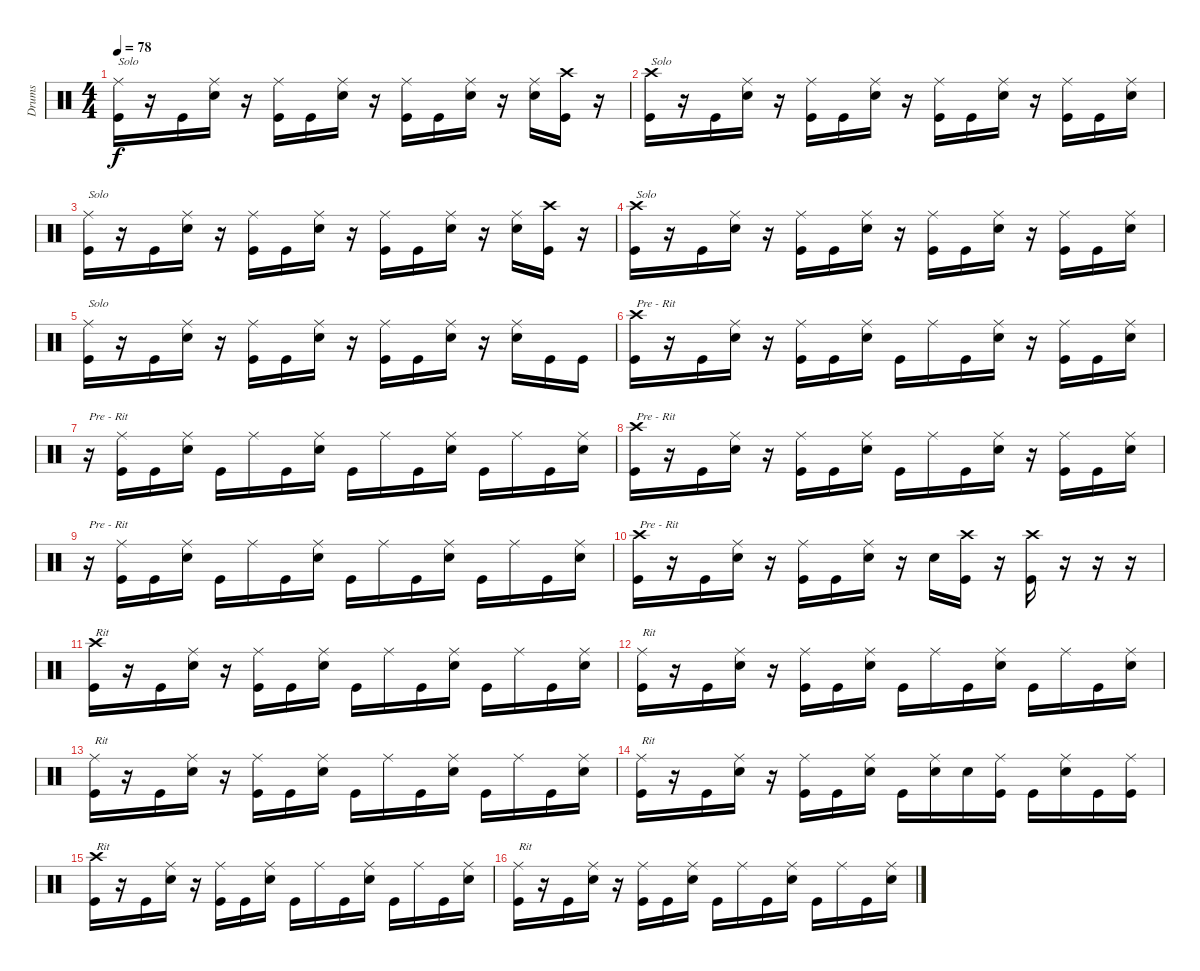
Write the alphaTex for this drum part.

\track ("Drums" "Drums") {instrument percussion}
\staff {score}
\articulation defaults
\ts (4 4)
\tempo 78
\clef neutral
\ks c
("Ride (middle)" "Kick (hit)").16{txt "Solo" dy f} r.16 "Kick (hit)".16 ("Ride (middle)" "Snare (hit) 2").16 r.16 ("Ride (middle)" "Kick (hit)").16 "Kick (hit)".16 ("Ride (middle)" "Snare (hit) 2").16 r.16 ("Ride (middle)" "Kick (hit)").16 "Kick (hit)".16 ("Ride (middle)" "Snare (hit) 2").16 r.16 ("Ride (middle)" "Snare (hit) 2").16 ("Crash high (hit)" "Kick (hit)").16 r.16 |
("Crash high (hit)" "Kick (hit)").16{txt "Solo"} r.16 "Kick (hit)".16 ("Ride (middle)" "Snare (hit) 2").16 r.16 ("Ride (middle)" "Kick (hit)").16 "Kick (hit)".16 ("Ride (middle)" "Snare (hit) 2").16 r.16 ("Ride (middle)" "Kick (hit)").16 "Kick (hit)".16 ("Ride (middle)" "Snare (hit) 2").16 r.16 ("Ride (middle)" "Kick (hit)").16 "Kick (hit)".16 ("Ride (middle)" "Snare (hit) 2").16 |
("Ride (middle)" "Kick (hit)").16{txt "Solo"} r.16 "Kick (hit)".16 ("Ride (middle)" "Snare (hit) 2").16 r.16 ("Ride (middle)" "Kick (hit)").16 "Kick (hit)".16 ("Ride (middle)" "Snare (hit) 2").16 r.16 ("Ride (middle)" "Kick (hit)").16 "Kick (hit)".16 ("Ride (middle)" "Snare (hit) 2").16 r.16 ("Ride (middle)" "Snare (hit) 2").16 ("Crash high (hit)" "Kick (hit)").16 r.16 |
("Crash high (hit)" "Kick (hit)").16{txt "Solo"} r.16 "Kick (hit)".16 ("Ride (middle)" "Snare (hit) 2").16 r.16 ("Ride (middle)" "Kick (hit)").16 "Kick (hit)".16 ("Ride (middle)" "Snare (hit) 2").16 r.16 ("Ride (middle)" "Kick (hit)").16 "Kick (hit)".16 ("Ride (middle)" "Snare (hit) 2").16 r.16 ("Ride (middle)" "Kick (hit)").16 "Kick (hit)".16 ("Ride (middle)" "Snare (hit) 2").16 |
("Ride (middle)" "Kick (hit)").16{txt "Solo"} r.16 "Kick (hit)".16 ("Ride (middle)" "Snare (hit) 2").16 r.16 ("Ride (middle)" "Kick (hit)").16 "Kick (hit)".16 ("Ride (middle)" "Snare (hit) 2").16 r.16 ("Ride (middle)" "Kick (hit)").16 "Kick (hit)".16 ("Ride (middle)" "Snare (hit) 2").16 r.16 ("Ride (middle)" "Snare (hit) 2").16 "Kick (hit)".16 "Kick (hit)".16 |
("Crash high (hit)" "Kick (hit)").16{txt "Pre - Rit"} r.16 "Kick (hit)".16 ("Ride (middle)" "Snare (hit) 2").16 r.16 ("Ride (middle)" "Kick (hit)").16 "Kick (hit)".16 ("Ride (middle)" "Snare (hit) 2").16 "Kick (hit)".16 "Ride (middle)".16 "Kick (hit)".16 ("Ride (middle)" "Snare (hit) 2").16 r.16 ("Ride (middle)" "Kick (hit)").16 "Kick (hit)".16 ("Ride (middle)" "Snare (hit) 2").16 |
r.16{txt "Pre - Rit"} ("Ride (middle)" "Kick (hit)").16 "Kick (hit)".16 ("Ride (middle)" "Snare (hit) 2").16 "Kick (hit)".16 "Ride (middle)".16 "Kick (hit)".16 ("Ride (middle)" "Snare (hit) 2").16 "Kick (hit)".16 "Ride (middle)".16 "Kick (hit)".16 ("Ride (middle)" "Snare (hit) 2").16 "Kick (hit)".16 "Ride (middle)".16 "Kick (hit)".16 ("Ride (middle)" "Snare (hit) 2").16 |
("Crash high (hit)" "Kick (hit)").16{txt "Pre - Rit"} r.16 "Kick (hit)".16 ("Ride (middle)" "Snare (hit) 2").16 r.16 ("Ride (middle)" "Kick (hit)").16 "Kick (hit)".16 ("Ride (middle)" "Snare (hit) 2").16 "Kick (hit)".16 "Ride (middle)".16 "Kick (hit)".16 ("Ride (middle)" "Snare (hit) 2").16 r.16 ("Ride (middle)" "Kick (hit)").16 "Kick (hit)".16 ("Ride (middle)" "Snare (hit) 2").16 |
r.16{txt "Pre - Rit"} ("Ride (middle)" "Kick (hit)").16 "Kick (hit)".16 ("Ride (middle)" "Snare (hit) 2").16 "Kick (hit)".16 "Ride (middle)".16 "Kick (hit)".16 ("Ride (middle)" "Snare (hit) 2").16 "Kick (hit)".16 "Ride (middle)".16 "Kick (hit)".16 ("Ride (middle)" "Snare (hit) 2").16 "Kick (hit)".16 "Ride (middle)".16 "Kick (hit)".16 ("Ride (middle)" "Snare (hit) 2").16 |
("Crash high (hit)" "Kick (hit)").16{txt "Pre - Rit"} r.16 "Kick (hit)".16 ("Ride (middle)" "Snare (hit) 2").16 r.16 ("Ride (middle)" "Kick (hit)").16 "Kick (hit)".16 ("Ride (middle)" "Snare (hit) 2").16 r.16 "Snare (hit) 2".16 ("Crash high (hit)" "Kick (hit)").16 r.16 ("Crash high (hit)" "Kick (hit)").16 r.16 r.16 r.16 |
("Crash high (hit)" "Kick (hit)").16{txt "Rit"} r.16 "Kick (hit)".16 ("Ride (middle)" "Snare (hit) 2").16 r.16 ("Ride (middle)" "Kick (hit)").16 "Kick (hit)".16 ("Ride (middle)" "Snare (hit) 2").16 "Kick (hit)".16 "Ride (middle)".16 "Kick (hit)".16 ("Ride (middle)" "Snare (hit) 2").16 "Kick (hit)".16 "Ride (middle)".16 "Kick (hit)".16 ("Ride (middle)" "Snare (hit) 2").16 |
("Ride (middle)" "Kick (hit)").16{txt "Rit"} r.16 "Kick (hit)".16 ("Ride (middle)" "Snare (hit) 2").16 r.16 ("Ride (middle)" "Kick (hit)").16 "Kick (hit)".16 ("Ride (middle)" "Snare (hit) 2").16 "Kick (hit)".16 "Ride (middle)".16 "Kick (hit)".16 ("Ride (middle)" "Snare (hit) 2").16 "Kick (hit)".16 "Ride (middle)".16 "Kick (hit)".16 ("Ride (middle)" "Snare (hit) 2").16 |
("Ride (middle)" "Kick (hit)").16{txt "Rit"} r.16 "Kick (hit)".16 ("Ride (middle)" "Snare (hit) 2").16 r.16 ("Ride (middle)" "Kick (hit)").16 "Kick (hit)".16 ("Ride (middle)" "Snare (hit) 2").16 "Kick (hit)".16 "Ride (middle)".16 "Kick (hit)".16 ("Ride (middle)" "Snare (hit) 2").16 "Kick (hit)".16 "Ride (middle)".16 "Kick (hit)".16 ("Ride (middle)" "Snare (hit) 2").16 |
("Ride (middle)" "Kick (hit)").16{txt "Rit"} r.16 "Kick (hit)".16 ("Ride (middle)" "Snare (hit) 2").16 r.16 ("Ride (middle)" "Kick (hit)").16 "Kick (hit)".16 ("Ride (middle)" "Snare (hit) 2").16 "Kick (hit)".16 ("Ride (middle)" "Snare (hit) 2").16 "Snare (hit) 2".16 ("Ride (middle)" "Kick (hit)").16 "Kick (hit)".16 ("Ride (middle)" "Snare (hit) 2").16 "Kick (hit)".16 ("Ride (middle)" "Kick (hit)").16 |
("Crash high (hit)" "Kick (hit)").16{txt "Rit"} r.16 "Kick (hit)".16 ("Ride (middle)" "Snare (hit) 2").16 r.16 ("Ride (middle)" "Kick (hit)").16 "Kick (hit)".16 ("Ride (middle)" "Snare (hit) 2").16 "Kick (hit)".16 "Ride (middle)".16 "Kick (hit)".16 ("Ride (middle)" "Snare (hit) 2").16 "Kick (hit)".16 "Ride (middle)".16 "Kick (hit)".16 ("Ride (middle)" "Snare (hit) 2").16 |
("Ride (middle)" "Kick (hit)").16{txt "Rit"} r.16 "Kick (hit)".16 ("Ride (middle)" "Snare (hit) 2").16 r.16 ("Ride (middle)" "Kick (hit)").16 "Kick (hit)".16 ("Ride (middle)" "Snare (hit) 2").16 "Kick (hit)".16 "Ride (middle)".16 "Kick (hit)".16 ("Ride (middle)" "Snare (hit) 2").16 "Kick (hit)".16 "Ride (middle)".16 "Kick (hit)".16 ("Ride (middle)" "Snare (hit) 2").16
